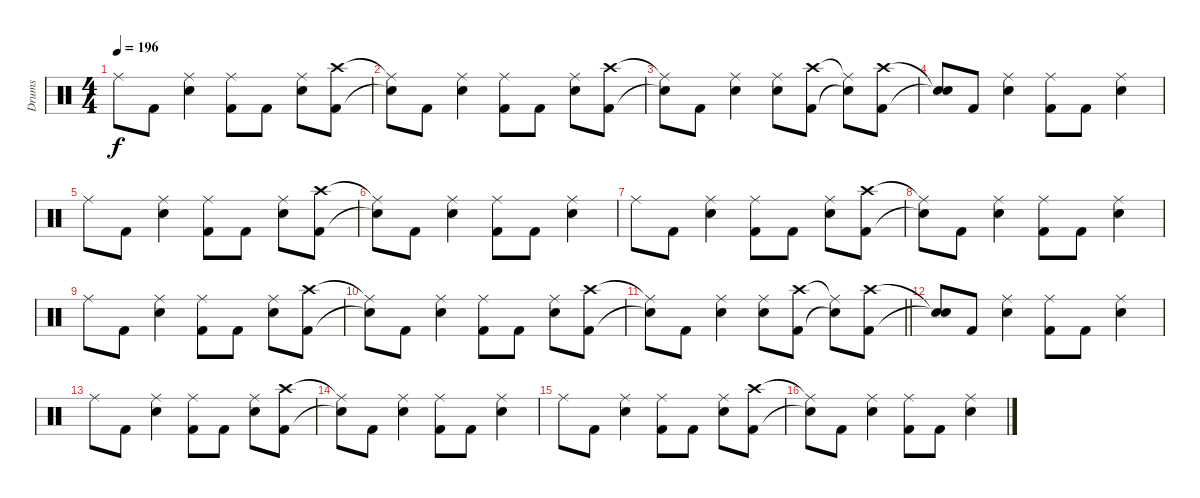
\track ("Drums" "Drums") {instrument percussion}
\staff {score}
\articulation defaults
\ts (4 4)
\tempo 196
\clef neutral
\ks c "Ride (middle)".8{dy f} "Kick (hit) 2".8
("Ride (middle)" "Snare (hit) 2").4 ("Ride (middle)" "Kick (hit) 2").8 "Kick (hit) 2".8 ("Ride (middle)" "Snare (hit) 2").8 ("Crash high (hit)" "Kick (hit) 2").8 |
("Ride (middle)"{t} "Snare (hit)"{t}).8 "Kick (hit) 2".8 ("Ride (middle)" "Snare (hit) 2").4 ("Ride (middle)" "Kick (hit) 2").8 "Kick (hit) 2".8 ("Ride (middle)" "Snare (hit) 2").8 ("Crash high (hit)" "Kick (hit) 2").8 |
("Ride (middle)"{t} "Snare (hit)"{t}).8 "Kick (hit) 2".8 ("Ride (middle)" "Snare (hit) 2").4 ("Ride (middle)" "Snare (hit) 2").8 ("Crash high (hit)" "Kick (hit) 2").8 ("Ride (middle)"{t} "Snare (hit)"{t}).8 ("Crash high (hit)" "Kick (hit) 2").8 |
("Snare (hit)"{t} "Snare (hit)"{t}).8 "Kick (hit) 2".8 ("Ride (middle)" "Snare (hit) 2").4 ("Ride (middle)" "Kick (hit) 2").8 "Kick (hit) 2".8 ("Ride (middle)" "Snare (hit) 2").4 |
"Ride (middle)".8 "Kick (hit) 2".8 ("Ride (middle)" "Snare (hit) 2").4 ("Ride (middle)" "Kick (hit) 2").8 "Kick (hit) 2".8 ("Ride (middle)" "Snare (hit) 2").8 ("Crash high (hit)" "Kick (hit) 2").8 |
("Ride (middle)"{t} "Snare (hit)"{t}).8 "Kick (hit) 2".8 ("Ride (middle)" "Snare (hit) 2").4 ("Ride (middle)" "Kick (hit) 2").8 "Kick (hit) 2".8 ("Ride (middle)" "Snare (hit) 2").4 |
"Ride (middle)".8 "Kick (hit) 2".8 ("Ride (middle)" "Snare (hit) 2").4 ("Ride (middle)" "Kick (hit) 2").8 "Kick (hit) 2".8 ("Ride (middle)" "Snare (hit) 2").8 ("Crash high (hit)" "Kick (hit) 2").8 |
("Ride (middle)"{t} "Snare (hit)"{t}).8 "Kick (hit) 2".8 ("Ride (middle)" "Snare (hit) 2").4 ("Ride (middle)" "Kick (hit) 2").8 "Kick (hit) 2".8 ("Ride (middle)" "Snare (hit) 2").4 |
"Ride (middle)".8 "Kick (hit) 2".8 ("Ride (middle)" "Snare (hit) 2").4 ("Ride (middle)" "Kick (hit) 2").8 "Kick (hit) 2".8 ("Ride (middle)" "Snare (hit) 2").8 ("Crash high (hit)" "Kick (hit) 2").8 |
("Ride (middle)"{t} "Snare (hit)"{t}).8 "Kick (hit) 2".8 ("Ride (middle)" "Snare (hit) 2").4 ("Ride (middle)" "Kick (hit) 2").8 "Kick (hit) 2".8 ("Ride (middle)" "Snare (hit) 2").8 ("Crash high (hit)" "Kick (hit) 2").8 |
\barLineRight lightlight
("Ride (middle)"{t} "Snare (hit)"{t}).8 "Kick (hit) 2".8 ("Ride (middle)" "Snare (hit) 2").4 ("Ride (middle)" "Snare (hit) 2").8 ("Crash high (hit)" "Kick (hit) 2").8 ("Ride (middle)"{t} "Snare (hit)"{t}).8 ("Crash high (hit)" "Kick (hit) 2").8 |
("Snare (hit)"{t} "Snare (hit)"{t}).8 "Kick (hit) 2".8 ("Ride (middle)" "Snare (hit) 2").4 ("Ride (middle)" "Kick (hit) 2").8 "Kick (hit) 2".8 ("Ride (middle)" "Snare (hit) 2").4 |
"Ride (middle)".8 "Kick (hit) 2".8 ("Ride (middle)" "Snare (hit) 2").4 ("Ride (middle)" "Kick (hit) 2").8 "Kick (hit) 2".8 ("Ride (middle)" "Snare (hit) 2").8 ("Crash high (hit)" "Kick (hit) 2").8 |
("Ride (middle)"{t} "Snare (hit)"{t}).8 "Kick (hit) 2".8 ("Ride (middle)" "Snare (hit) 2").4 ("Ride (middle)" "Kick (hit) 2").8 "Kick (hit) 2".8 ("Ride (middle)" "Snare (hit) 2").4 |
"Ride (middle)".8 "Kick (hit) 2".8 ("Ride (middle)" "Snare (hit) 2").4 ("Ride (middle)" "Kick (hit) 2").8 "Kick (hit) 2".8 ("Ride (middle)" "Snare (hit) 2").8 ("Crash high (hit)" "Kick (hit) 2").8 |
("Ride (middle)"{t} "Snare (hit)"{t}).8 "Kick (hit) 2".8 ("Ride (middle)" "Snare (hit) 2").4 ("Ride (middle)" "Kick (hit) 2").8 "Kick (hit) 2".8 ("Ride (middle)" "Snare (hit) 2").4
